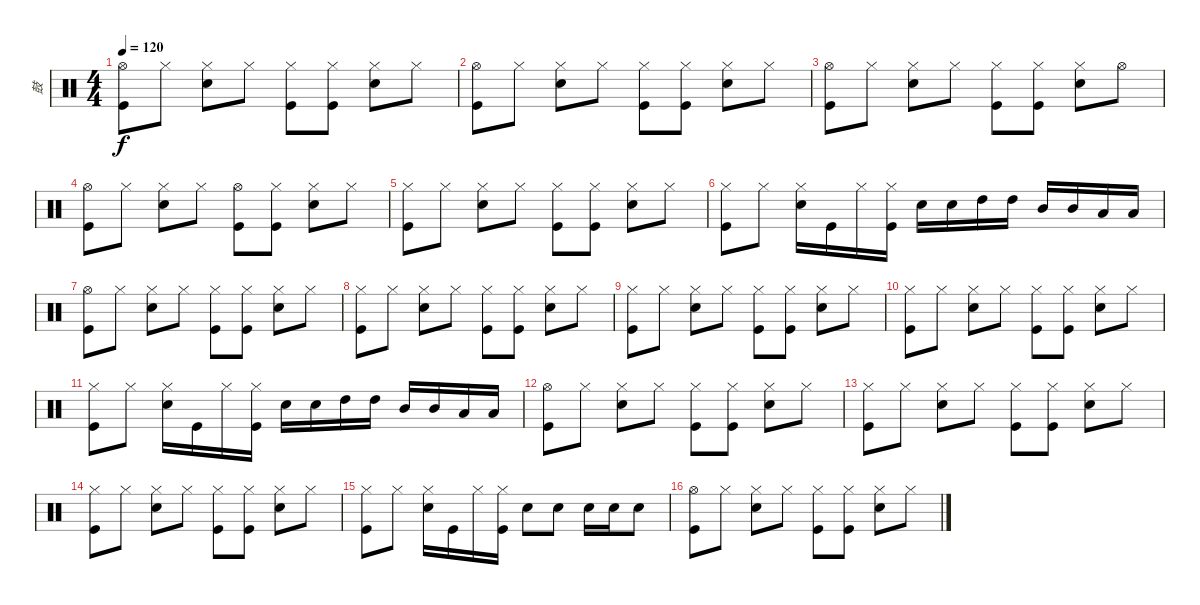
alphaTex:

\track ("鼓" "鼓") {instrument percussion}
\staff {score}
\articulation defaults
\ts (4 4)
\tempo 120
\clef neutral
\ks c
("Hi-Hat (open)" "Kick (hit)").8{dy f} "Hi-Hat (closed)".8 ("Hi-Hat (closed)" "Snare (hit) 2").8 "Hi-Hat (closed)".8 ("Hi-Hat (closed)" "Kick (hit)").8 ("Hi-Hat (closed)" "Kick (hit)").8 ("Hi-Hat (closed)" "Snare (hit) 2").8 "Hi-Hat (closed)".8 |
("Hi-Hat (open)" "Kick (hit)").8 "Hi-Hat (closed)".8 ("Hi-Hat (closed)" "Snare (hit) 2").8 "Hi-Hat (closed)".8 ("Hi-Hat (closed)" "Kick (hit)").8 ("Hi-Hat (closed)" "Kick (hit)").8 ("Hi-Hat (closed)" "Snare (hit) 2").8 "Hi-Hat (closed)".8 |
("Hi-Hat (open)" "Kick (hit)").8 "Hi-Hat (closed)".8 ("Hi-Hat (closed)" "Snare (hit) 2").8 "Hi-Hat (closed)".8 ("Hi-Hat (closed)" "Kick (hit)").8 ("Hi-Hat (closed)" "Kick (hit)").8 ("Hi-Hat (closed)" "Snare (hit) 2").8 "Hi-Hat (open)".8 |
("Hi-Hat (open)" "Kick (hit)").8 "Hi-Hat (closed)".8 ("Hi-Hat (closed)" "Snare (hit) 2").8 "Hi-Hat (closed)".8 ("Hi-Hat (open)" "Kick (hit)").8 ("Hi-Hat (closed)" "Kick (hit)").8 ("Hi-Hat (closed)" "Snare (hit) 2").8 "Hi-Hat (closed)".8 |
("Hi-Hat (closed)" "Kick (hit)").8 "Hi-Hat (closed)".8 ("Hi-Hat (closed)" "Snare (hit) 2").8 "Hi-Hat (closed)".8 ("Hi-Hat (closed)" "Kick (hit)").8 ("Hi-Hat (closed)" "Kick (hit)").8 ("Hi-Hat (closed)" "Snare (hit) 2").8 "Hi-Hat (closed)".8 |
("Hi-Hat (closed)" "Kick (hit)").8 "Hi-Hat (closed)".8 ("Hi-Hat (closed)" "Snare (hit) 2").16 "Kick (hit)".16 "Hi-Hat (closed)".16 ("Hi-Hat (closed)" "Kick (hit)").16 "Snare (hit) 2".16 "Snare (hit) 2".16 "High Tom (hit)".16 "High Tom (hit)".16 "Mid Tom (hit)".16 "Mid Tom (hit)".16 "Low Tom (hit)".16 "Low Tom (hit)".16 |
("Hi-Hat (open)" "Kick (hit)").8 "Hi-Hat (closed)".8 ("Hi-Hat (closed)" "Snare (hit) 2").8 "Hi-Hat (closed)".8 ("Hi-Hat (closed)" "Kick (hit)").8 ("Hi-Hat (closed)" "Kick (hit)").8 ("Hi-Hat (closed)" "Snare (hit) 2").8 "Hi-Hat (closed)".8 |
("Hi-Hat (closed)" "Kick (hit)").8 "Hi-Hat (closed)".8 ("Hi-Hat (closed)" "Snare (hit) 2").8 "Hi-Hat (closed)".8 ("Hi-Hat (closed)" "Kick (hit)").8 ("Hi-Hat (closed)" "Kick (hit)").8 ("Hi-Hat (closed)" "Snare (hit) 2").8 "Hi-Hat (closed)".8 |
("Hi-Hat (closed)" "Kick (hit)").8 "Hi-Hat (closed)".8 ("Hi-Hat (closed)" "Snare (hit) 2").8 "Hi-Hat (closed)".8 ("Hi-Hat (closed)" "Kick (hit)").8 ("Hi-Hat (closed)" "Kick (hit)").8 ("Hi-Hat (closed)" "Snare (hit) 2").8 "Hi-Hat (closed)".8 |
("Hi-Hat (closed)" "Kick (hit)").8 "Hi-Hat (closed)".8 ("Hi-Hat (closed)" "Snare (hit) 2").8 "Hi-Hat (closed)".8 ("Hi-Hat (closed)" "Kick (hit)").8 ("Hi-Hat (closed)" "Kick (hit)").8 ("Hi-Hat (closed)" "Snare (hit) 2").8 "Hi-Hat (closed)".8 |
("Hi-Hat (closed)" "Kick (hit)").8 "Hi-Hat (closed)".8 ("Hi-Hat (closed)" "Snare (hit) 2").16 "Kick (hit)".16 "Hi-Hat (closed)".16 ("Hi-Hat (closed)" "Kick (hit)").16 "Snare (hit) 2".16 "Snare (hit) 2".16 "High Tom (hit)".16 "High Tom (hit)".16 "Mid Tom (hit)".16 "Mid Tom (hit)".16 "Low Tom (hit)".16 "Low Tom (hit)".16 |
("Hi-Hat (open)" "Kick (hit)").8 "Hi-Hat (closed)".8 ("Hi-Hat (closed)" "Snare (hit) 2").8 "Hi-Hat (closed)".8 ("Hi-Hat (closed)" "Kick (hit)").8 ("Hi-Hat (closed)" "Kick (hit)").8 ("Hi-Hat (closed)" "Snare (hit) 2").8 "Hi-Hat (closed)".8 |
("Hi-Hat (closed)" "Kick (hit)").8 "Hi-Hat (closed)".8 ("Hi-Hat (closed)" "Snare (hit) 2").8 "Hi-Hat (closed)".8 ("Hi-Hat (closed)" "Kick (hit)").8 ("Hi-Hat (closed)" "Kick (hit)").8 ("Hi-Hat (closed)" "Snare (hit) 2").8 "Hi-Hat (closed)".8 |
("Hi-Hat (closed)" "Kick (hit)").8 "Hi-Hat (closed)".8 ("Hi-Hat (closed)" "Snare (hit) 2").8 "Hi-Hat (closed)".8 ("Hi-Hat (closed)" "Kick (hit)").8 ("Hi-Hat (closed)" "Kick (hit)").8 ("Hi-Hat (closed)" "Snare (hit) 2").8 "Hi-Hat (closed)".8 |
("Hi-Hat (closed)" "Kick (hit)").8 "Hi-Hat (closed)".8 ("Hi-Hat (closed)" "Snare (hit) 2").16 "Kick (hit)".16 "Hi-Hat (closed)".16 ("Hi-Hat (closed)" "Kick (hit)").16 "Snare (hit) 2".8 "Snare (hit) 2".8 "Snare (hit) 2".16 "Snare (hit) 2".16 "Snare (hit) 2".8 |
("Hi-Hat (open)" "Kick (hit)").8 "Hi-Hat (closed)".8 ("Hi-Hat (closed)" "Snare (hit) 2").8 "Hi-Hat (closed)".8 ("Hi-Hat (closed)" "Kick (hit)").8 ("Hi-Hat (closed)" "Kick (hit)").8 ("Hi-Hat (closed)" "Snare (hit) 2").8 "Hi-Hat (closed)".8
